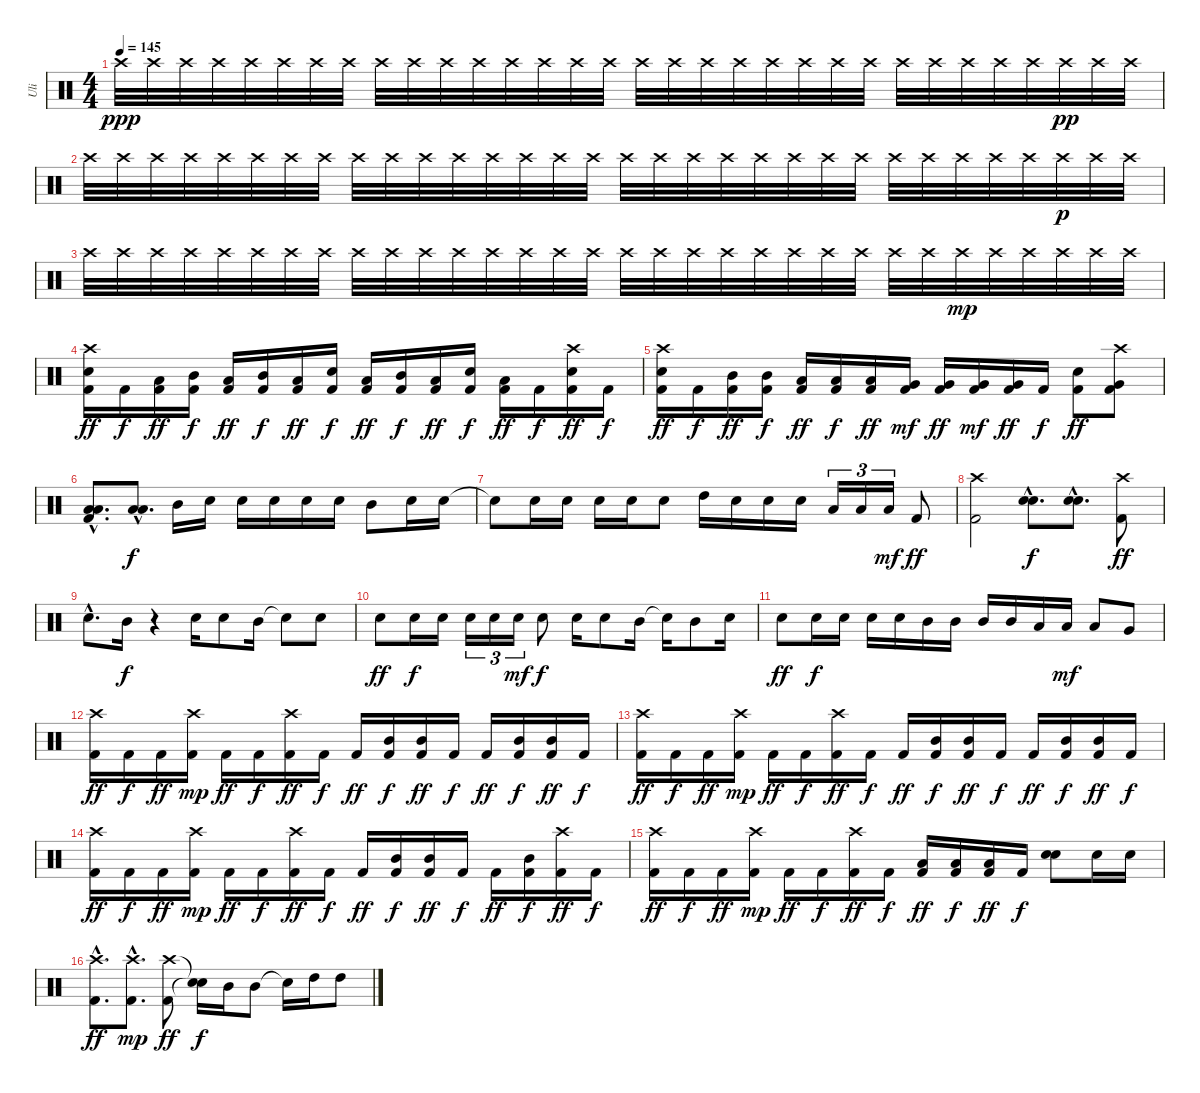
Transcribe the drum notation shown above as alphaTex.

\track ("Uli" "Uli") {instrument percussion}
\staff {score}
\articulation defaults
\ts (4 4)
\tempo 145
\clef neutral
\ks c "Crash high (hit)".32{dy ppp} "Crash high (hit)".32 "Crash high (hit)".32 "Crash high (hit)".32 "Crash high (hit)".32 "Crash high (hit)".32 "Crash high (hit)".32 "Crash high (hit)".32 "Crash high (hit)".32 "Crash high (hit)".32 "Crash high (hit)".32 "Crash high (hit)".32 "Crash high (hit)".32 "Crash high (hit)".32 "Crash high (hit)".32 "Crash high (hit)".32 "Crash high (hit)".32 "Crash high (hit)".32 "Crash high (hit)".32 "Crash high (hit)".32 "Crash high (hit)".32 "Crash high (hit)".32 "Crash high (hit)".32 "Crash high (hit)".32 "Crash high (hit)".32 "Crash high (hit)".32 "Crash high (hit)".32 "Crash high (hit)".32 "Crash high (hit)".32 "Crash high (hit)".32{dy pp} "Crash high (hit)".32 "Crash high (hit)".32
|
"Crash high (hit)".32 "Crash high (hit)".32 "Crash high (hit)".32 "Crash high (hit)".32 "Crash high (hit)".32 "Crash high (hit)".32 "Crash high (hit)".32 "Crash high (hit)".32 "Crash high (hit)".32 "Crash high (hit)".32 "Crash high (hit)".32 "Crash high (hit)".32 "Crash high (hit)".32 "Crash high (hit)".32 "Crash high (hit)".32 "Crash high (hit)".32 "Crash high (hit)".32 "Crash high (hit)".32 "Crash high (hit)".32 "Crash high (hit)".32 "Crash high (hit)".32 "Crash high (hit)".32 "Crash high (hit)".32 "Crash high (hit)".32 "Crash high (hit)".32 "Crash high (hit)".32 "Crash high (hit)".32 "Crash high (hit)".32 "Crash high (hit)".32 "Crash high (hit)".32{dy p} "Crash high (hit)".32 "Crash high (hit)".32 |
"Crash high (hit)".32 "Crash high (hit)".32 "Crash high (hit)".32 "Crash high (hit)".32 "Crash high (hit)".32 "Crash high (hit)".32 "Crash high (hit)".32 "Crash high (hit)".32 "Crash high (hit)".32 "Crash high (hit)".32 "Crash high (hit)".32 "Crash high (hit)".32 "Crash high (hit)".32 "Crash high (hit)".32 "Crash high (hit)".32 "Crash high (hit)".32 "Crash high (hit)".32 "Crash high (hit)".32 "Crash high (hit)".32 "Crash high (hit)".32 "Crash high (hit)".32 "Crash high (hit)".32 "Crash high (hit)".32 "Crash high (hit)".32 "Crash high (hit)".32 "Crash high (hit)".32 "Crash high (hit)".32{dy mp} "Crash high (hit)".32 "Crash high (hit)".32 "Crash high (hit)".32 "Crash high (hit)".32 "Crash high (hit)".32 |
("Crash high (hit)" "Electric Snare (hit)" "Kick (hit) 2").16{dy ff} "Kick (hit) 2".16{dy f} ("Low Tom (hit)" "Kick (hit) 2").16{dy ff} ("Mid Tom (hit)" "Kick (hit) 2").16{dy f} ("Low Tom (hit)" "Kick (hit) 2").16{dy ff} ("Mid Tom (hit)" "Kick (hit) 2").16{dy f} ("Low Tom (hit)" "Kick (hit) 2").16{dy ff} ("Electric Snare (hit)" "Kick (hit) 2").16{dy f} ("Low Tom (hit)" "Kick (hit) 2").16{dy ff} ("Mid Tom (hit)" "Kick (hit) 2").16{dy f} ("Low Tom (hit)" "Kick (hit) 2").16{dy ff} ("Electric Snare (hit)" "Kick (hit) 2").16{dy f} ("Low Tom (hit)" "Kick (hit) 2").16{dy ff} "Kick (hit) 2".16{dy f} ("Crash high (hit)" "Electric Snare (hit)" "Kick (hit) 2").16{dy ff} "Kick (hit) 2".16{dy f} |
("Crash high (hit)" "Electric Snare (hit)" "Kick (hit) 2").16{dy ff} "Kick (hit) 2".16{dy f} ("Mid Tom (hit)" "Kick (hit) 2").16{dy ff} ("Mid Tom (hit)" "Kick (hit) 2").16{dy f} ("Low Tom (hit)" "Kick (hit) 2").16{dy ff} ("Low Tom (hit)" "Kick (hit) 2").16{dy f} ("Low Tom (hit)" "Kick (hit) 2").16{dy ff} ("Very Low Tom (hit)" "Kick (hit) 2").16{dy mf} ("Very Low Tom (hit)" "Kick (hit) 2").16{dy ff} ("Very Low Tom (hit)" "Kick (hit) 2").16{dy mf} ("Very Low Tom (hit)" "Kick (hit) 2").16{dy ff} "Kick (hit) 2".16{dy f} ("Electric Snare (hit)" "Kick (hit) 2").8{dy ff} ("Crash high (hit)" "Very Low Tom (hit)" "Kick (hit) 2").8 |
("Low Tom (hit)"{hac} "Kick (hit) 2"{hac} "Low Tom (hit)"{hac}).8{d} ("Low Tom (hit)"{hac} "Low Tom (hit)"{hac}).8{d dy f} "Mid Tom (hit)".16 "Electric Snare (hit)".16 "Electric Snare (hit)".16 "Electric Snare (hit)".16 "Electric Snare (hit)".16 "Electric Snare (hit)".16 "Mid Tom (hit)".8 "Electric Snare (hit)".16 "Electric Snare (hit)".16 |
"Snare (hit)"{t}.8 "Electric Snare (hit)".16 "Electric Snare (hit)".16 "Electric Snare (hit)".16 "Electric Snare (hit)".16 "Electric Snare (hit)".8 "High Tom (hit)".16 "Electric Snare (hit)".16 "Electric Snare (hit)".16 "Electric Snare (hit)".16 "Low Tom (hit)".16{tu (3 2)} "Low Tom (hit)".16{tu (3 2)} "Low Tom (hit)".16{tu (3 2) dy mf} "Kick (hit) 2".8{dy ff} |
("Crash high (hit)" "Kick (hit) 2").2 ("Electric Snare (hit)"{hac} "Electric Snare (hit)"{hac}).8{d dy f} ("Electric Snare (hit)"{hac} "Electric Snare (hit)"{hac}).8{d} ("Crash high (hit)" "Kick (hit) 2").8{dy ff} |
"Electric Snare (hit)"{hac}.8{d} "Mid Tom (hit)".16{dy f} r.4 "Electric Snare (hit)".16 "Electric Snare (hit)".8 "Mid Tom (hit)".16 "Snare (hit)"{t}.8 "Electric Snare (hit)".8 |
"Electric Snare (hit)".8{dy ff} "Electric Snare (hit)".16{dy f} "Electric Snare (hit)".16 "Electric Snare (hit)".16{tu (3 2)} "Electric Snare (hit)".16{tu (3 2)} "Electric Snare (hit)".16{tu (3 2) dy mf} "Electric Snare (hit)".8{dy f} "Electric Snare (hit)".16 "Electric Snare (hit)".8 "Mid Tom (hit)".16 "Snare (hit)"{t}.16 "Mid Tom (hit)".8 "Electric Snare (hit)".16 |
"Electric Snare (hit)".8{dy ff} "Electric Snare (hit)".16{dy f} "Electric Snare (hit)".16 "Electric Snare (hit)".16 "Electric Snare (hit)".16 "Mid Tom (hit)".16 "Mid Tom (hit)".16 "Mid Tom (hit)".16 "Mid Tom (hit)".16 "Low Tom (hit)".16 "Low Tom (hit)".16{dy mf} "Low Tom (hit)".8 "Very Low Tom (hit)".8 |
("Crash high (hit)" "Kick (hit) 2").16{dy ff} "Kick (hit) 2".16{dy f} "Kick (hit) 2".16{dy ff} ("Crash high (hit)" "Kick (hit) 2").16{dy mp} "Kick (hit) 2".16{dy ff} "Kick (hit) 2".16{dy f} ("Crash high (hit)" "Kick (hit) 2").16{dy ff} "Kick (hit) 2".16{dy f} "Kick (hit) 2".16{dy ff} ("Mid Tom (hit)" "Kick (hit) 2").16{dy f} ("Mid Tom (hit)" "Kick (hit) 2").16{dy ff} "Kick (hit) 2".16{dy f} "Kick (hit) 2".16{dy ff} ("Mid Tom (hit)" "Kick (hit) 2").16{dy f} ("Mid Tom (hit)" "Kick (hit) 2").16{dy ff} "Kick (hit) 2".16{dy f} |
("Crash high (hit)" "Kick (hit) 2").16{dy ff} "Kick (hit) 2".16{dy f} "Kick (hit) 2".16{dy ff} ("Crash high (hit)" "Kick (hit) 2").16{dy mp} "Kick (hit) 2".16{dy ff} "Kick (hit) 2".16{dy f} ("Crash high (hit)" "Kick (hit) 2").16{dy ff} "Kick (hit) 2".16{dy f} "Kick (hit) 2".16{dy ff} ("Mid Tom (hit)" "Kick (hit) 2").16{dy f} ("Mid Tom (hit)" "Kick (hit) 2").16{dy ff} "Kick (hit) 2".16{dy f} "Kick (hit) 2".16{dy ff} ("Mid Tom (hit)" "Kick (hit) 2").16{dy f} ("Mid Tom (hit)" "Kick (hit) 2").16{dy ff} "Kick (hit) 2".16{dy f} |
("Crash high (hit)" "Kick (hit) 2").16{dy ff} "Kick (hit) 2".16{dy f} "Kick (hit) 2".16{dy ff} ("Crash high (hit)" "Kick (hit) 2").16{dy mp} "Kick (hit) 2".16{dy ff} "Kick (hit) 2".16{dy f} ("Crash high (hit)" "Kick (hit) 2").16{dy ff} "Kick (hit) 2".16{dy f} "Kick (hit) 2".16{dy ff} ("Mid Tom (hit)" "Kick (hit) 2").16{dy f} ("Mid Tom (hit)" "Kick (hit) 2").16{dy ff} "Kick (hit) 2".16{dy f} "Kick (hit) 2".16{dy ff} ("Mid Tom (hit)" "Kick (hit) 2").16{dy f} ("Crash high (hit)" "Kick (hit) 2").16{dy ff} "Kick (hit) 2".16{dy f} |
("Crash high (hit)" "Kick (hit) 2").16{dy ff} "Kick (hit) 2".16{dy f} "Kick (hit) 2".16{dy ff} ("Crash high (hit)" "Kick (hit) 2").16{dy mp} "Kick (hit) 2".16{dy ff} "Kick (hit) 2".16{dy f} ("Crash high (hit)" "Kick (hit) 2").16{dy ff} "Kick (hit) 2".16{dy f} ("Low Tom (hit)" "Kick (hit) 2").16{dy ff} ("Low Tom (hit)" "Kick (hit) 2").16{dy f} ("Low Tom (hit)" "Kick (hit) 2").16{dy ff} "Kick (hit) 2".16{dy f} ("Electric Snare (hit)" "Electric Snare (hit)").8 "Electric Snare (hit)".16 "Electric Snare (hit)".16 |
("Crash high (hit)"{hac} "Kick (hit) 2"{hac}).8{d dy ff} ("Crash high (hit)"{hac} "Kick (hit) 2"{hac}).8{d dy mp} ("Crash high (hit)" "Kick (hit) 2").8{dy ff} ("Snare (hit)"{t} "Snare (hit)"{t}).16{dy f} "Mid Tom (hit)".16 "Mid Tom (hit)".8 "Snare (hit)"{t}.16 "High Tom (hit)".16 "High Tom (hit)".8
